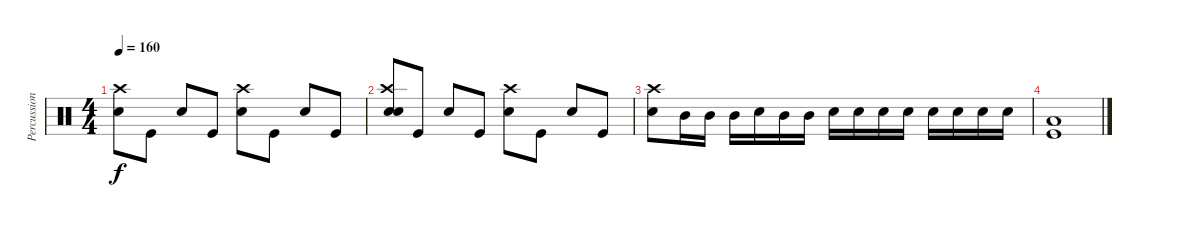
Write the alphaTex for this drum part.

\track ("Percussion" "Percussion") {instrument percussion}
\staff {score}
\articulation defaults
\ts (4 4)
\tempo 160
\clef neutral
\ks c
("Snare (hit) 2" "Crash high (hit)").8{dy f} "Kick (hit)".8 "Snare (hit) 2".8 "Kick (hit)".8 ("Snare (hit) 2" "Crash high (hit)").8 "Kick (hit)".8 "Snare (hit) 2".8 "Kick (hit)".8 |
("Crash high (hit)" "Snare (hit) 2" "Electric Snare (hit)").8 "Kick (hit)".8 "Snare (hit) 2".8 "Kick (hit)".8 ("Snare (hit) 2" "Crash high (hit)").8 "Kick (hit)".8 "Snare (hit) 2".8 "Kick (hit)".8 |
("Snare (hit) 2" "Crash high (hit)").8 "Mid Tom (hit)".16 "Mid Tom (hit)".16 "Mid Tom (hit)".16 "Snare (hit) 2".16 "Mid Tom (hit)".16 "Mid Tom (hit)".16 "Snare (hit) 2".16 "Snare (hit) 2".16 "Snare (hit) 2".16 "Snare (hit) 2".16 "Snare (hit) 2".16 "Snare (hit) 2".16 "Snare (hit) 2".16 "Snare (hit) 2".16 |
("Kick (hit)" "Low Tom (hit)").1
